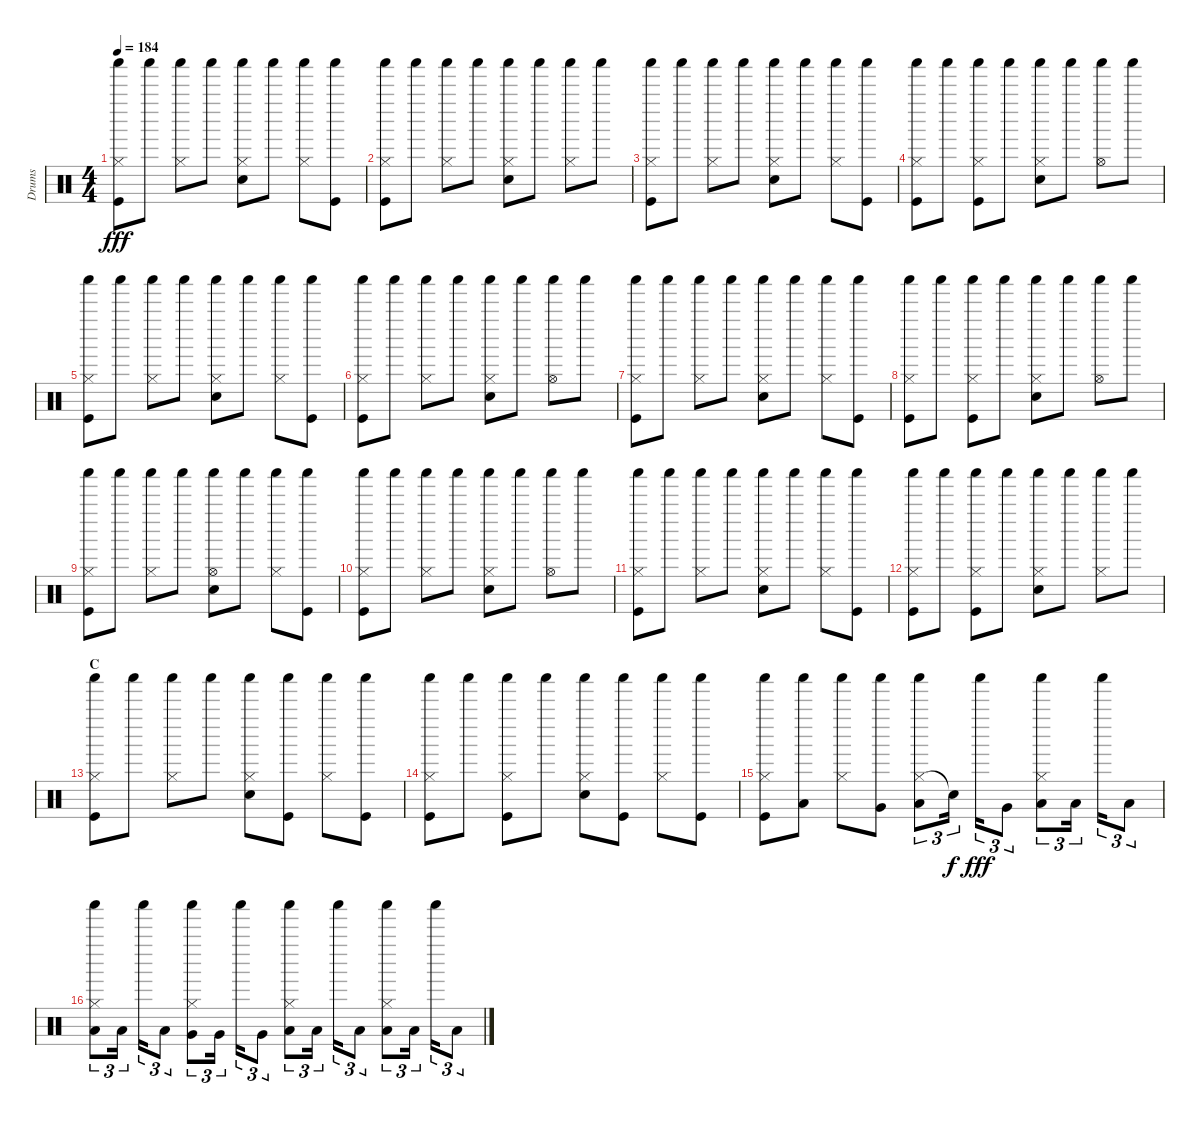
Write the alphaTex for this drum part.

\track ("Drums" "Drums") {instrument percussion}
\staff {score}
\articulation defaults
\ts (4 4)
\tempo 184
\clef neutral
\ks c
("Hi-Hat (closed)" "Shaker (hit)" "Kick (hit)").8{dy fff} "Shaker (hit)".8 ("Hi-Hat (closed)" "Shaker (hit)").8 "Shaker (hit)".8 ("Hi-Hat (closed)" "Shaker (hit)" "Snare (hit) 2").8 "Shaker (hit)".8 ("Hi-Hat (closed)" "Shaker (hit)").8 ("Shaker (hit)" "Kick (hit)").8 |
("Hi-Hat (closed)" "Shaker (hit)" "Kick (hit)").8 "Shaker (hit)".8 ("Hi-Hat (closed)" "Shaker (hit)").8 "Shaker (hit)".8 ("Hi-Hat (closed)" "Shaker (hit)" "Snare (hit) 2").8 "Shaker (hit)".8 ("Hi-Hat (closed)" "Shaker (hit)").8 "Shaker (hit)".8 |
("Hi-Hat (closed)" "Shaker (hit)" "Kick (hit)").8 "Shaker (hit)".8 ("Hi-Hat (closed)" "Shaker (hit)").8 "Shaker (hit)".8 ("Hi-Hat (closed)" "Shaker (hit)" "Snare (hit) 2").8 "Shaker (hit)".8 ("Hi-Hat (closed)" "Shaker (hit)").8 ("Shaker (hit)" "Kick (hit)").8 |
("Hi-Hat (closed)" "Shaker (hit)" "Kick (hit)").8 "Shaker (hit)".8 ("Hi-Hat (closed)" "Shaker (hit)" "Kick (hit)").8 "Shaker (hit)".8 ("Hi-Hat (closed)" "Shaker (hit)" "Snare (hit) 2").8 "Shaker (hit)".8 ("Hi-Hat (open)" "Shaker (hit)").8 "Shaker (hit)".8 |
("Hi-Hat (closed)" "Shaker (hit)" "Kick (hit)").8 "Shaker (hit)".8 ("Hi-Hat (closed)" "Shaker (hit)").8 "Shaker (hit)".8 ("Hi-Hat (closed)" "Shaker (hit)" "Snare (hit) 2").8 "Shaker (hit)".8 ("Hi-Hat (closed)" "Shaker (hit)").8 ("Shaker (hit)" "Kick (hit)").8 |
("Hi-Hat (closed)" "Shaker (hit)" "Kick (hit)").8 "Shaker (hit)".8 ("Hi-Hat (closed)" "Shaker (hit)").8 "Shaker (hit)".8 ("Hi-Hat (closed)" "Shaker (hit)" "Snare (hit) 2").8 "Shaker (hit)".8 ("Hi-Hat (open)" "Shaker (hit)").8 "Shaker (hit)".8 |
("Hi-Hat (closed)" "Shaker (hit)" "Kick (hit)").8 "Shaker (hit)".8 ("Hi-Hat (closed)" "Shaker (hit)").8 "Shaker (hit)".8 ("Hi-Hat (closed)" "Shaker (hit)" "Snare (hit) 2").8 "Shaker (hit)".8 ("Hi-Hat (closed)" "Shaker (hit)").8 ("Shaker (hit)" "Kick (hit)").8 |
("Hi-Hat (closed)" "Shaker (hit)" "Kick (hit)").8 "Shaker (hit)".8 ("Hi-Hat (closed)" "Shaker (hit)" "Kick (hit)").8 "Shaker (hit)".8 ("Hi-Hat (closed)" "Shaker (hit)" "Snare (hit) 2").8 "Shaker (hit)".8 ("Hi-Hat (open)" "Shaker (hit)").8 "Shaker (hit)".8 |
("Hi-Hat (closed)" "Shaker (hit)" "Kick (hit)").8 "Shaker (hit)".8 ("Hi-Hat (closed)" "Shaker (hit)").8 "Shaker (hit)".8 ("Hi-Hat (open)" "Shaker (hit)" "Snare (hit) 2").8 "Shaker (hit)".8 ("Hi-Hat (closed)" "Shaker (hit)").8 ("Shaker (hit)" "Kick (hit)").8 |
("Hi-Hat (closed)" "Shaker (hit)" "Kick (hit)").8 "Shaker (hit)".8 ("Hi-Hat (closed)" "Shaker (hit)").8 "Shaker (hit)".8 ("Hi-Hat (closed)" "Shaker (hit)" "Snare (hit) 2").8 "Shaker (hit)".8 ("Hi-Hat (open)" "Shaker (hit)").8 "Shaker (hit)".8 |
("Hi-Hat (closed)" "Shaker (hit)" "Kick (hit)").8 "Shaker (hit)".8 ("Hi-Hat (closed)" "Shaker (hit)").8 "Shaker (hit)".8 ("Hi-Hat (closed)" "Shaker (hit)" "Snare (hit) 2").8 "Shaker (hit)".8 ("Hi-Hat (closed)" "Shaker (hit)").8 ("Shaker (hit)" "Kick (hit)").8 |
("Hi-Hat (closed)" "Shaker (hit)" "Kick (hit)").8 "Shaker (hit)".8 ("Hi-Hat (closed)" "Shaker (hit)" "Kick (hit)").8 "Shaker (hit)".8 ("Hi-Hat (closed)" "Shaker (hit)" "Snare (hit) 2").8 "Shaker (hit)".8 ("Hi-Hat (closed)" "Shaker (hit)").8 "Shaker (hit)".8 |
\section ("" "C")
("Hi-Hat (closed)" "Shaker (hit)" "Kick (hit)").8 "Shaker (hit)".8 ("Hi-Hat (closed)" "Shaker (hit)").8 "Shaker (hit)".8 ("Hi-Hat (closed)" "Shaker (hit)" "Snare (hit) 2").8 ("Shaker (hit)" "Kick (hit)").8 ("Hi-Hat (closed)" "Shaker (hit)").8 ("Shaker (hit)" "Kick (hit)").8 |
("Hi-Hat (closed)" "Shaker (hit)" "Kick (hit)").8 "Shaker (hit)".8 ("Hi-Hat (closed)" "Shaker (hit)" "Kick (hit)").8 "Shaker (hit)".8 ("Hi-Hat (closed)" "Shaker (hit)" "Snare (hit) 2").8 ("Shaker (hit)" "Kick (hit)").8 ("Hi-Hat (closed)" "Shaker (hit)").8 ("Shaker (hit)" "Kick (hit)").8 |
("Hi-Hat (closed)" "Shaker (hit)" "Kick (hit)").8 ("Shaker (hit)" "Low Tom (hit)").8 ("Hi-Hat (closed)" "Shaker (hit)").8 ("Shaker (hit)" "Very Low Tom (hit)").8 ("Hi-Hat (closed)" "Shaker (hit)" "Low Tom (hit)").8{tu (3 2)} "Snare (hit)"{t}.16{tu (3 2) dy f} "Shaker (hit)".16{tu (3 2) dy fff} "Very Low Tom (hit)".8{tu (3 2)} ("Hi-Hat (closed)" "Shaker (hit)" "Low Tom (hit)").8{tu (3 2)} "Low Tom (hit)".16{tu (3 2)} "Shaker (hit)".16{tu (3 2)} "Low Tom (hit)".8{tu (3 2)} |
("Hi-Hat (closed)" "Shaker (hit)" "Low Tom (hit)").8{tu (3 2)} "Low Tom (hit)".16{tu (3 2)} "Shaker (hit)".16{tu (3 2)} "Low Tom (hit)".8{tu (3 2)} ("Hi-Hat (closed)" "Shaker (hit)" "Very Low Tom (hit)").8{tu (3 2)} "Very Low Tom (hit)".16{tu (3 2)} "Shaker (hit)".16{tu (3 2)} "Very Low Tom (hit)".8{tu (3 2)} ("Hi-Hat (closed)" "Shaker (hit)" "Low Floor Tom (hit)").8{tu (3 2)} "Low Floor Tom (hit)".16{tu (3 2)} "Shaker (hit)".16{tu (3 2)} "Low Floor Tom (hit)".8{tu (3 2)} ("Hi-Hat (closed)" "Shaker (hit)" "Low Floor Tom (hit)").8{tu (3 2)} "Low Floor Tom (hit)".16{tu (3 2)} "Shaker (hit)".16{tu (3 2)} "Low Floor Tom (hit)".8{tu (3 2)}
